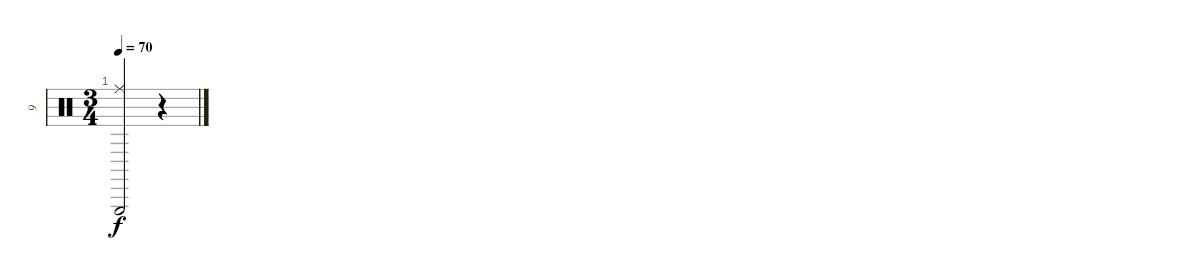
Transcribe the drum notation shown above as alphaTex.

\track ("9" "9") {instrument percussion}
\staff {score}
\articulation defaults
\ts (3 4)
\tempo 70
\clef neutral
\ks c
("Triangle (hit)" "Ride (middle)").2{dy f} r.4
